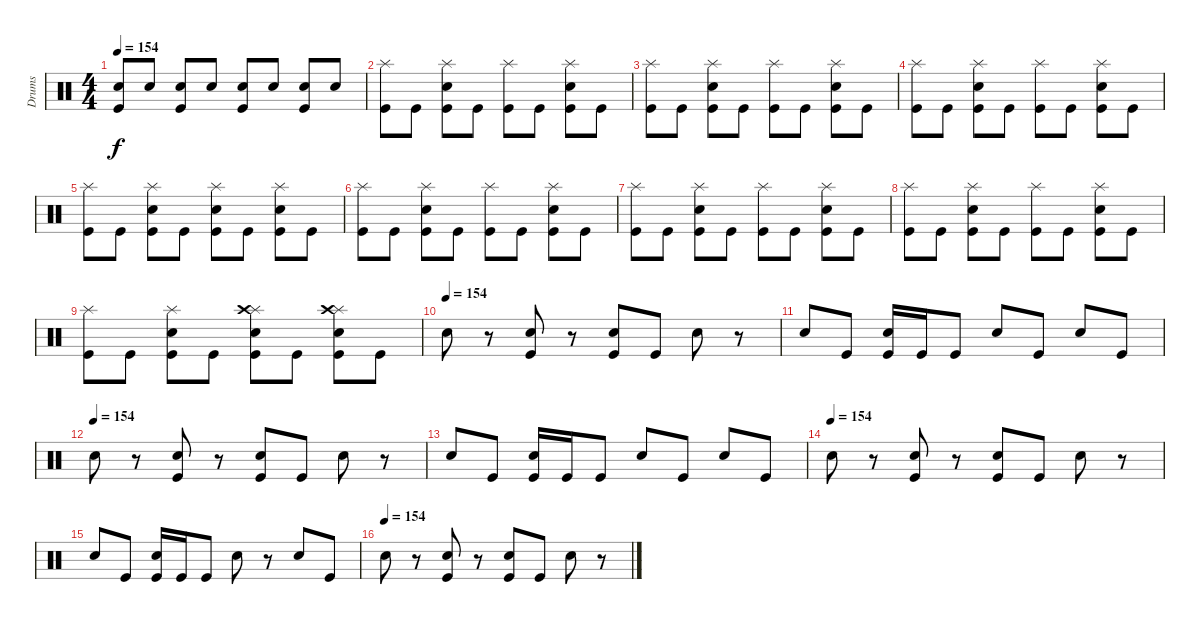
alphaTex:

\track ("Drums" "Drums") {instrument percussion}
\staff {score}
\articulation defaults
\ts (4 4)
\tempo 154
\clef neutral
\ks c
("Kick (hit)" "Snare (hit) 2").8{dy f} "Snare (hit) 2".8 ("Kick (hit)" "Snare (hit) 2").8 "Snare (hit) 2".8 ("Kick (hit)" "Snare (hit) 2").8 "Snare (hit) 2".8 ("Kick (hit)" "Snare (hit) 2").8 "Snare (hit) 2".8 |
("Splash (hit)" "Kick (hit)").8 "Kick (hit)".8 ("Splash (hit)" "Snare (hit) 2" "Kick (hit)").8 "Kick (hit)".8 ("Splash (hit)" "Kick (hit)").8 "Kick (hit)".8 ("Splash (hit)" "Snare (hit) 2" "Kick (hit)").8 "Kick (hit)".8 |
("Splash (hit)" "Kick (hit)").8 "Kick (hit)".8 ("Splash (hit)" "Snare (hit) 2" "Kick (hit)").8 "Kick (hit)".8 ("Splash (hit)" "Kick (hit)").8 "Kick (hit)".8 ("Splash (hit)" "Snare (hit) 2" "Kick (hit)").8 "Kick (hit)".8 |
("Splash (hit)" "Kick (hit)").8 "Kick (hit)".8 ("Splash (hit)" "Snare (hit) 2" "Kick (hit)").8 "Kick (hit)".8 ("Splash (hit)" "Kick (hit)").8 "Kick (hit)".8 ("Splash (hit)" "Snare (hit) 2" "Kick (hit)").8 "Kick (hit)".8 |
("Splash (hit)" "Kick (hit)").8 "Kick (hit)".8 ("Splash (hit)" "Snare (hit) 2" "Kick (hit)").8 "Kick (hit)".8 ("Splash (hit)" "Kick (hit)" "Snare (hit) 2").8 "Kick (hit)".8 ("Splash (hit)" "Snare (hit) 2" "Kick (hit)").8 "Kick (hit)".8 |
("Splash (hit)" "Kick (hit)").8 "Kick (hit)".8 ("Splash (hit)" "Snare (hit) 2" "Kick (hit)").8 "Kick (hit)".8 ("Splash (hit)" "Kick (hit)").8 "Kick (hit)".8 ("Splash (hit)" "Snare (hit) 2" "Kick (hit)").8 "Kick (hit)".8 |
("Splash (hit)" "Kick (hit)").8 "Kick (hit)".8 ("Splash (hit)" "Snare (hit) 2" "Kick (hit)").8 "Kick (hit)".8 ("Splash (hit)" "Kick (hit)").8 "Kick (hit)".8 ("Splash (hit)" "Snare (hit) 2" "Kick (hit)").8 "Kick (hit)".8 |
("Splash (hit)" "Kick (hit)").8 "Kick (hit)".8 ("Splash (hit)" "Snare (hit) 2" "Kick (hit)").8 "Kick (hit)".8 ("Splash (hit)" "Kick (hit)").8 "Kick (hit)".8 ("Splash (hit)" "Snare (hit) 2" "Kick (hit)").8 "Kick (hit)".8 |
("Splash (hit)" "Kick (hit)").8 "Kick (hit)".8 ("Splash (hit)" "Snare (hit) 2" "Kick (hit)").8 "Kick (hit)".8 ("Splash (hit)" "Kick (hit)" "Crash high (hit)" "Snare (hit) 2").8 "Kick (hit)".8 ("Splash (hit)" "Snare (hit) 2" "Kick (hit)" "Crash high (hit)").8 "Kick (hit)".8 |
\tempo (154)
"Snare (hit) 2".8 r.8 ("Kick (hit)" "Snare (hit) 2").8 r.8 ("Kick (hit)" "Snare (hit) 2").8 "Kick (hit)".8 "Snare (hit) 2".8 r.8 |
"Snare (hit) 2".8 "Kick (hit)".8 ("Snare (hit) 2" "Kick (hit)").16 "Kick (hit)".16 "Kick (hit)".8 "Snare (hit) 2".8 "Kick (hit)".8 "Snare (hit) 2".8 "Kick (hit)".8 |
\tempo (154)
"Snare (hit) 2".8 r.8 ("Kick (hit)" "Snare (hit) 2").8 r.8 ("Kick (hit)" "Snare (hit) 2").8 "Kick (hit)".8 "Snare (hit) 2".8 r.8 |
"Snare (hit) 2".8 "Kick (hit)".8 ("Snare (hit) 2" "Kick (hit)").16 "Kick (hit)".16 "Kick (hit)".8 "Snare (hit) 2".8 "Kick (hit)".8 "Snare (hit) 2".8 "Kick (hit)".8 |
\tempo (154)
"Snare (hit) 2".8 r.8 ("Kick (hit)" "Snare (hit) 2").8 r.8 ("Kick (hit)" "Snare (hit) 2").8 "Kick (hit)".8 "Snare (hit) 2".8 r.8 |
"Snare (hit) 2".8 "Kick (hit)".8 ("Snare (hit) 2" "Kick (hit)").16 "Kick (hit)".16 "Kick (hit)".8 "Snare (hit) 2".8 r.8 "Snare (hit) 2".8 "Kick (hit)".8 |
\tempo (154)
"Snare (hit) 2".8 r.8 ("Kick (hit)" "Snare (hit) 2").8 r.8 ("Kick (hit)" "Snare (hit) 2").8 "Kick (hit)".8 "Snare (hit) 2".8 r.8
